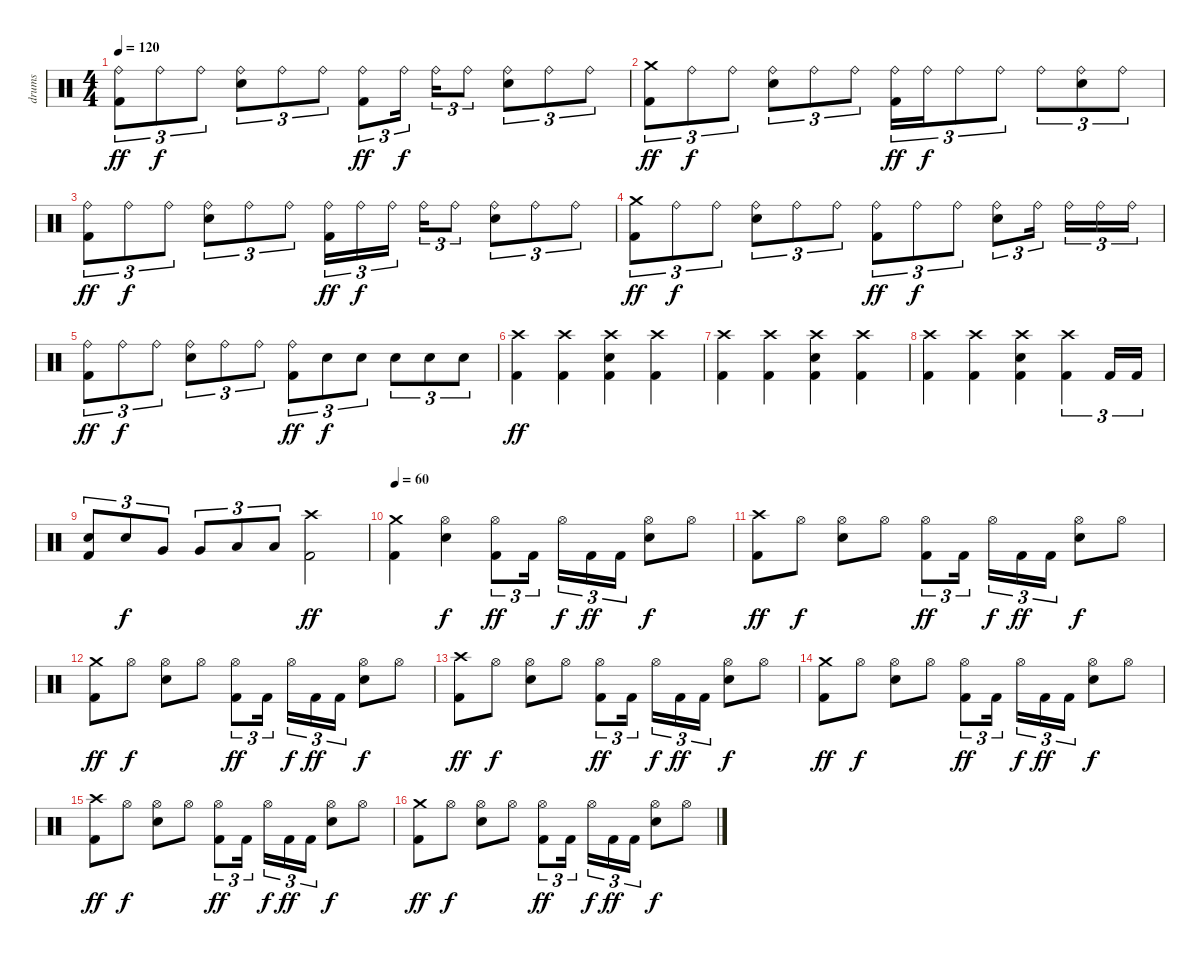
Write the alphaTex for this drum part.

\track ("drums" "drums") {instrument percussion}
\staff {score}
\articulation defaults
\ts (4 4)
\tempo 120
\clef neutral
\ks c
("Ride (bell)" "Kick (hit) 2").8{tu (3 2) dy ff} "Ride (bell)".8{tu (3 2) dy f} "Ride (bell)".8{tu (3 2)} ("Ride (bell)" "Electric Snare (hit)").8{tu (3 2)} "Ride (bell)".8{tu (3 2)} "Ride (bell)".8{tu (3 2)} ("Ride (bell)" "Kick (hit) 2").8{tu (3 2) dy ff} "Ride (bell)".16{tu (3 2) dy f} "Ride (bell)".16{tu (3 2)} "Ride (bell)".8{tu (3 2)} ("Ride (bell)" "Electric Snare (hit)").8{tu (3 2)} "Ride (bell)".8{tu (3 2)} "Ride (bell)".8{tu (3 2)} |
("Crash medium (hit)" "Kick (hit) 2").8{tu (3 2) dy ff} "Ride (bell)".8{tu (3 2) dy f} "Ride (bell)".8{tu (3 2)} ("Ride (bell)" "Electric Snare (hit)").8{tu (3 2)} "Ride (bell)".8{tu (3 2)} "Ride (bell)".8{tu (3 2)} ("Ride (bell)" "Kick (hit) 2").16{tu (3 2) dy ff} "Ride (bell)".16{tu (3 2) dy f} "Ride (bell)".8{tu (3 2)} "Ride (bell)".8{tu (3 2)} "Ride (bell)".8{tu (3 2)} ("Ride (bell)" "Electric Snare (hit)").8{tu (3 2)} "Ride (bell)".8{tu (3 2)} |
("Ride (bell)" "Kick (hit) 2").8{tu (3 2) dy ff} "Ride (bell)".8{tu (3 2) dy f} "Ride (bell)".8{tu (3 2)} ("Ride (bell)" "Electric Snare (hit)").8{tu (3 2)} "Ride (bell)".8{tu (3 2)} "Ride (bell)".8{tu (3 2)} ("Ride (bell)" "Kick (hit) 2").16{tu (3 2) dy ff} "Ride (bell)".16{tu (3 2) dy f} "Ride (bell)".16{tu (3 2)} "Ride (bell)".16{tu (3 2)} "Ride (bell)".8{tu (3 2)} ("Ride (bell)" "Electric Snare (hit)").8{tu (3 2)} "Ride (bell)".8{tu (3 2)} "Ride (bell)".8{tu (3 2)} |
("Crash medium (hit)" "Kick (hit) 2").8{tu (3 2) dy ff} "Ride (bell)".8{tu (3 2) dy f} "Ride (bell)".8{tu (3 2)} ("Ride (bell)" "Electric Snare (hit)").8{tu (3 2)} "Ride (bell)".8{tu (3 2)} "Ride (bell)".8{tu (3 2)} ("Ride (bell)" "Kick (hit) 2").8{tu (3 2) dy ff} "Ride (bell)".8{tu (3 2) dy f} "Ride (bell)".8{tu (3 2)} ("Ride (bell)" "Electric Snare (hit)").8{tu (3 2)} "Ride (bell)".16{tu (3 2)} "Ride (bell)".16{tu (3 2)} "Ride (bell)".16{tu (3 2)} "Ride (bell)".16{tu (3 2)} |
("Ride (bell)" "Kick (hit) 2").8{tu (3 2) dy ff} "Ride (bell)".8{tu (3 2) dy f} "Ride (bell)".8{tu (3 2)} ("Ride (bell)" "Electric Snare (hit)").8{tu (3 2)} "Ride (bell)".8{tu (3 2)} "Ride (bell)".8{tu (3 2)} ("Ride (bell)" "Kick (hit) 2").8{tu (3 2) dy ff} "Electric Snare (hit)".8{tu (3 2) dy f} "Electric Snare (hit)".8{tu (3 2)} "Electric Snare (hit)".8{tu (3 2)} "Electric Snare (hit)".8{tu (3 2)} "Electric Snare (hit)".8{tu (3 2)} |
("Crash high (hit)" "Kick (hit) 2").4{dy ff} ("Crash high (hit)" "Kick (hit) 2").4 ("Crash high (hit)" "Electric Snare (hit)" "Kick (hit) 2").4 ("Crash high (hit)" "Kick (hit) 2").4 |
("Crash high (hit)" "Kick (hit) 2").4 ("Crash high (hit)" "Kick (hit) 2").4 ("Crash high (hit)" "Electric Snare (hit)" "Kick (hit) 2").4 ("Crash high (hit)" "Kick (hit) 2").4 |
("Crash high (hit)" "Kick (hit) 2").4 ("Crash high (hit)" "Kick (hit) 2").4 ("Crash high (hit)" "Electric Snare (hit)" "Kick (hit) 2").4 ("Crash high (hit)" "Kick (hit) 2").4{tu (3 2)} "Kick (hit) 2".16{tu (3 2)} "Kick (hit) 2".16{tu (3 2)} |
("Electric Snare (hit)" "Kick (hit) 2").8{tu (3 2)} "Electric Snare (hit)".8{tu (3 2) dy f} "Very Low Tom (hit)".8{tu (3 2)} "Very Low Tom (hit)".8{tu (3 2)} "Low Floor Tom (hit)".8{tu (3 2)} "Low Floor Tom (hit)".8{tu (3 2)} ("Crash high (hit)" "Kick (hit) 2").2{dy ff} |
\tempo 60
("Crash medium (hit)" "Kick (hit) 2").4 ("Hi-Hat (open)" "Electric Snare (hit)").4{dy f} ("Hi-Hat (open)" "Kick (hit) 2").8{tu (3 2) dy ff} "Kick (hit) 2".16{tu (3 2)} "Hi-Hat (open)".16{tu (3 2) dy f} "Kick (hit) 2".16{tu (3 2) dy ff} "Kick (hit) 2".16{tu (3 2)} ("Hi-Hat (open)" "Electric Snare (hit)").8{dy f} "Hi-Hat (open)".8 |
("Crash high (hit)" "Kick (hit) 2").8{dy ff} "Hi-Hat (open)".8{dy f} ("Hi-Hat (open)" "Electric Snare (hit)").8 "Hi-Hat (open)".8 ("Hi-Hat (open)" "Kick (hit) 2").8{tu (3 2) dy ff} "Kick (hit) 2".16{tu (3 2)} "Hi-Hat (open)".16{tu (3 2) dy f} "Kick (hit) 2".16{tu (3 2) dy ff} "Kick (hit) 2".16{tu (3 2)} ("Hi-Hat (open)" "Electric Snare (hit)").8{dy f} "Hi-Hat (open)".8 |
("Crash medium (hit)" "Kick (hit) 2").8{dy ff} "Hi-Hat (open)".8{dy f} ("Hi-Hat (open)" "Electric Snare (hit)").8 "Hi-Hat (open)".8 ("Hi-Hat (open)" "Kick (hit) 2").8{tu (3 2) dy ff} "Kick (hit) 2".16{tu (3 2)} "Hi-Hat (open)".16{tu (3 2) dy f} "Kick (hit) 2".16{tu (3 2) dy ff} "Kick (hit) 2".16{tu (3 2)} ("Hi-Hat (open)" "Electric Snare (hit)").8{dy f} "Hi-Hat (open)".8 |
("Crash high (hit)" "Kick (hit) 2").8{dy ff} "Hi-Hat (open)".8{dy f} ("Hi-Hat (open)" "Electric Snare (hit)").8 "Hi-Hat (open)".8 ("Hi-Hat (open)" "Kick (hit) 2").8{tu (3 2) dy ff} "Kick (hit) 2".16{tu (3 2)} "Hi-Hat (open)".16{tu (3 2) dy f} "Kick (hit) 2".16{tu (3 2) dy ff} "Kick (hit) 2".16{tu (3 2)} ("Hi-Hat (open)" "Electric Snare (hit)").8{dy f} "Hi-Hat (open)".8 |
("Crash medium (hit)" "Kick (hit) 2").8{dy ff} "Hi-Hat (open)".8{dy f} ("Hi-Hat (open)" "Electric Snare (hit)").8 "Hi-Hat (open)".8 ("Hi-Hat (open)" "Kick (hit) 2").8{tu (3 2) dy ff} "Kick (hit) 2".16{tu (3 2)} "Hi-Hat (open)".16{tu (3 2) dy f} "Kick (hit) 2".16{tu (3 2) dy ff} "Kick (hit) 2".16{tu (3 2)} ("Hi-Hat (open)" "Electric Snare (hit)").8{dy f} "Hi-Hat (open)".8 |
("Crash high (hit)" "Kick (hit) 2").8{dy ff} "Hi-Hat (open)".8{dy f} ("Hi-Hat (open)" "Electric Snare (hit)").8 "Hi-Hat (open)".8 ("Hi-Hat (open)" "Kick (hit) 2").8{tu (3 2) dy ff} "Kick (hit) 2".16{tu (3 2)} "Hi-Hat (open)".16{tu (3 2) dy f} "Kick (hit) 2".16{tu (3 2) dy ff} "Kick (hit) 2".16{tu (3 2)} ("Hi-Hat (open)" "Electric Snare (hit)").8{dy f} "Hi-Hat (open)".8 |
("Crash medium (hit)" "Kick (hit) 2").8{dy ff} "Hi-Hat (open)".8{dy f} ("Hi-Hat (open)" "Electric Snare (hit)").8 "Hi-Hat (open)".8 ("Hi-Hat (open)" "Kick (hit) 2").8{tu (3 2) dy ff} "Kick (hit) 2".16{tu (3 2)} "Hi-Hat (open)".16{tu (3 2) dy f} "Kick (hit) 2".16{tu (3 2) dy ff} "Kick (hit) 2".16{tu (3 2)} ("Hi-Hat (open)" "Electric Snare (hit)").8{dy f} "Hi-Hat (open)".8
